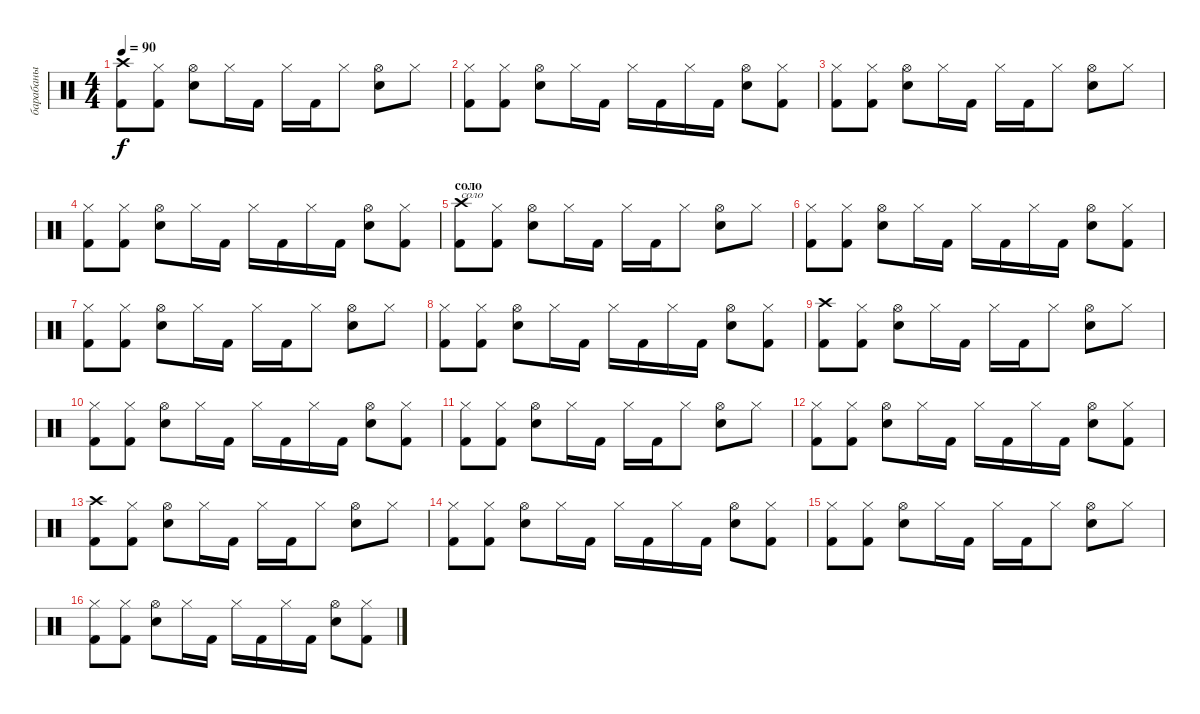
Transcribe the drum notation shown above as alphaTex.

\track ("барабаны" "барабаны") {instrument percussion}
\staff {score}
\articulation defaults
\ts (4 4)
\tempo 90
\clef neutral
\ks c
("Crash high (hit)" "Kick (hit) 2").8{dy f} ("Hi-Hat (closed)" "Kick (hit) 2").8 ("Hi-Hat (open)" "Electric Snare (hit)").8 "Hi-Hat (closed)".16 "Kick (hit) 2".16 "Hi-Hat (closed)".16 "Kick (hit) 2".16 "Hi-Hat (closed)".8 ("Hi-Hat (open)" "Electric Snare (hit)").8 "Hi-Hat (closed)".8 |
("Hi-Hat (closed)" "Kick (hit) 2").8 ("Hi-Hat (closed)" "Kick (hit) 2").8 ("Hi-Hat (open)" "Electric Snare (hit)").8 "Hi-Hat (closed)".16 "Kick (hit) 2".16 "Hi-Hat (closed)".16 "Kick (hit) 2".16 "Hi-Hat (closed)".16 "Kick (hit) 2".16 ("Hi-Hat (open)" "Electric Snare (hit)").8 ("Hi-Hat (closed)" "Kick (hit) 2").8 |
("Hi-Hat (closed)" "Kick (hit) 2").8 ("Hi-Hat (closed)" "Kick (hit) 2").8 ("Hi-Hat (open)" "Electric Snare (hit)").8 "Hi-Hat (closed)".16 "Kick (hit) 2".16 "Hi-Hat (closed)".16 "Kick (hit) 2".16 "Hi-Hat (closed)".8 ("Hi-Hat (open)" "Electric Snare (hit)").8 "Hi-Hat (closed)".8 |
("Hi-Hat (closed)" "Kick (hit) 2").8 ("Hi-Hat (closed)" "Kick (hit) 2").8 ("Hi-Hat (open)" "Electric Snare (hit)").8 "Hi-Hat (closed)".16 "Kick (hit) 2".16 "Hi-Hat (closed)".16 "Kick (hit) 2".16 "Hi-Hat (closed)".16 "Kick (hit) 2".16 ("Hi-Hat (open)" "Electric Snare (hit)").8 ("Hi-Hat (closed)" "Kick (hit) 2").8 |
\section ("" "соло")
("Crash high (hit)" "Kick (hit) 2").8{txt "соло"} ("Hi-Hat (closed)" "Kick (hit) 2").8 ("Hi-Hat (open)" "Electric Snare (hit)").8 "Hi-Hat (closed)".16 "Kick (hit) 2".16 "Hi-Hat (closed)".16 "Kick (hit) 2".16 "Hi-Hat (closed)".8 ("Hi-Hat (open)" "Electric Snare (hit)").8 "Hi-Hat (closed)".8 |
("Hi-Hat (closed)" "Kick (hit) 2").8 ("Hi-Hat (closed)" "Kick (hit) 2").8 ("Hi-Hat (open)" "Electric Snare (hit)").8 "Hi-Hat (closed)".16 "Kick (hit) 2".16 "Hi-Hat (closed)".16 "Kick (hit) 2".16 "Hi-Hat (closed)".16 "Kick (hit) 2".16 ("Hi-Hat (open)" "Electric Snare (hit)").8 ("Hi-Hat (closed)" "Kick (hit) 2").8 |
("Hi-Hat (closed)" "Kick (hit) 2").8 ("Hi-Hat (closed)" "Kick (hit) 2").8 ("Hi-Hat (open)" "Electric Snare (hit)").8 "Hi-Hat (closed)".16 "Kick (hit) 2".16 "Hi-Hat (closed)".16 "Kick (hit) 2".16 "Hi-Hat (closed)".8 ("Hi-Hat (open)" "Electric Snare (hit)").8 "Hi-Hat (closed)".8 |
("Hi-Hat (closed)" "Kick (hit) 2").8 ("Hi-Hat (closed)" "Kick (hit) 2").8 ("Hi-Hat (open)" "Electric Snare (hit)").8 "Hi-Hat (closed)".16 "Kick (hit) 2".16 "Hi-Hat (closed)".16 "Kick (hit) 2".16 "Hi-Hat (closed)".16 "Kick (hit) 2".16 ("Hi-Hat (open)" "Electric Snare (hit)").8 ("Hi-Hat (closed)" "Kick (hit) 2").8 |
("Crash high (hit)" "Kick (hit) 2").8 ("Hi-Hat (closed)" "Kick (hit) 2").8 ("Hi-Hat (open)" "Electric Snare (hit)").8 "Hi-Hat (closed)".16 "Kick (hit) 2".16 "Hi-Hat (closed)".16 "Kick (hit) 2".16 "Hi-Hat (closed)".8 ("Hi-Hat (open)" "Electric Snare (hit)").8 "Hi-Hat (closed)".8 |
("Hi-Hat (closed)" "Kick (hit) 2").8 ("Hi-Hat (closed)" "Kick (hit) 2").8 ("Hi-Hat (open)" "Electric Snare (hit)").8 "Hi-Hat (closed)".16 "Kick (hit) 2".16 "Hi-Hat (closed)".16 "Kick (hit) 2".16 "Hi-Hat (closed)".16 "Kick (hit) 2".16 ("Hi-Hat (open)" "Electric Snare (hit)").8 ("Hi-Hat (closed)" "Kick (hit) 2").8 |
("Hi-Hat (closed)" "Kick (hit) 2").8 ("Hi-Hat (closed)" "Kick (hit) 2").8 ("Hi-Hat (open)" "Electric Snare (hit)").8 "Hi-Hat (closed)".16 "Kick (hit) 2".16 "Hi-Hat (closed)".16 "Kick (hit) 2".16 "Hi-Hat (closed)".8 ("Hi-Hat (open)" "Electric Snare (hit)").8 "Hi-Hat (closed)".8 |
("Hi-Hat (closed)" "Kick (hit) 2").8 ("Hi-Hat (closed)" "Kick (hit) 2").8 ("Hi-Hat (open)" "Electric Snare (hit)").8 "Hi-Hat (closed)".16 "Kick (hit) 2".16 "Hi-Hat (closed)".16 "Kick (hit) 2".16 "Hi-Hat (closed)".16 "Kick (hit) 2".16 ("Hi-Hat (open)" "Electric Snare (hit)").8 ("Hi-Hat (closed)" "Kick (hit) 2").8 |
("Crash high (hit)" "Kick (hit) 2").8 ("Hi-Hat (closed)" "Kick (hit) 2").8 ("Hi-Hat (open)" "Electric Snare (hit)").8 "Hi-Hat (closed)".16 "Kick (hit) 2".16 "Hi-Hat (closed)".16 "Kick (hit) 2".16 "Hi-Hat (closed)".8 ("Hi-Hat (open)" "Electric Snare (hit)").8 "Hi-Hat (closed)".8 |
("Hi-Hat (closed)" "Kick (hit) 2").8 ("Hi-Hat (closed)" "Kick (hit) 2").8 ("Hi-Hat (open)" "Electric Snare (hit)").8 "Hi-Hat (closed)".16 "Kick (hit) 2".16 "Hi-Hat (closed)".16 "Kick (hit) 2".16 "Hi-Hat (closed)".16 "Kick (hit) 2".16 ("Hi-Hat (open)" "Electric Snare (hit)").8 ("Hi-Hat (closed)" "Kick (hit) 2").8 |
("Hi-Hat (closed)" "Kick (hit) 2").8 ("Hi-Hat (closed)" "Kick (hit) 2").8 ("Hi-Hat (open)" "Electric Snare (hit)").8 "Hi-Hat (closed)".16 "Kick (hit) 2".16 "Hi-Hat (closed)".16 "Kick (hit) 2".16 "Hi-Hat (closed)".8 ("Hi-Hat (open)" "Electric Snare (hit)").8 "Hi-Hat (closed)".8 |
("Hi-Hat (closed)" "Kick (hit) 2").8 ("Hi-Hat (closed)" "Kick (hit) 2").8 ("Hi-Hat (open)" "Electric Snare (hit)").8 "Hi-Hat (closed)".16 "Kick (hit) 2".16 "Hi-Hat (closed)".16 "Kick (hit) 2".16 "Hi-Hat (closed)".16 "Kick (hit) 2".16 ("Hi-Hat (open)" "Electric Snare (hit)").8 ("Hi-Hat (closed)" "Kick (hit) 2").8
